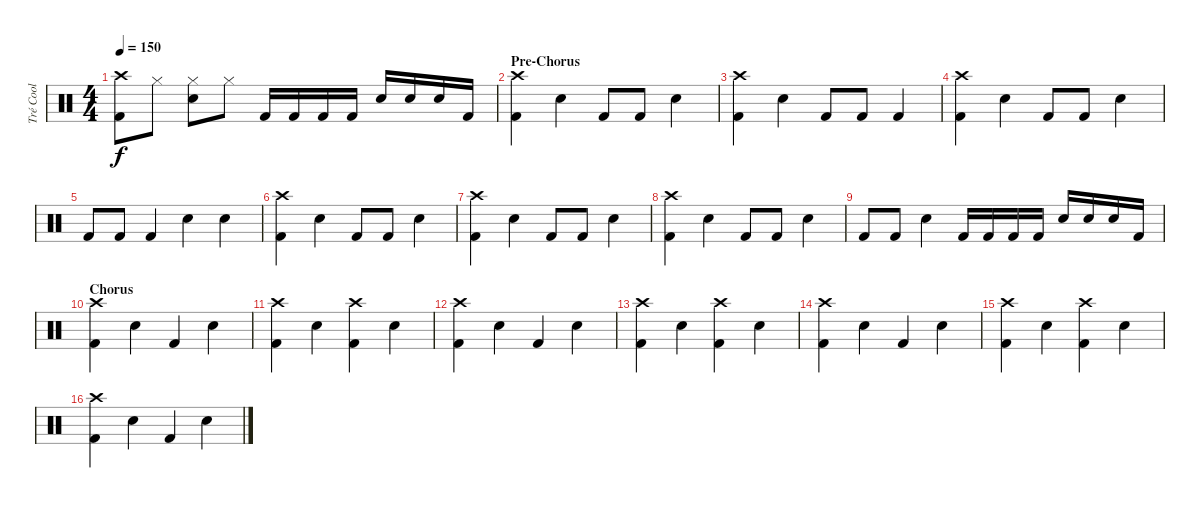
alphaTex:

\track ("Tré Cool" "Tré Cool") {instrument percussion}
\staff {score}
\articulation defaults
\ts (4 4)
\tempo 150
\clef neutral
\ks c
("Kick (hit) 2" "Crash high (hit)").8{dy f} "Hi-Hat (closed)".8 ("Snare (hit) 2" "Hi-Hat (closed)").8 "Hi-Hat (closed)".8 "Kick (hit) 2".16 "Kick (hit) 2".16 "Kick (hit) 2".16 "Kick (hit) 2".16 "Snare (hit) 2".16 "Snare (hit) 2".16 "Snare (hit) 2".16 "Kick (hit) 2".16 |
\section ("" "Pre-Chorus")
("Kick (hit) 2" "Crash high (hit)").4 "Snare (hit) 2".4 "Kick (hit) 2".8 "Kick (hit) 2".8 "Snare (hit) 2".4 |
("Kick (hit) 2" "Crash high (hit)").4 "Snare (hit) 2".4 "Kick (hit) 2".8 "Kick (hit) 2".8 "Kick (hit) 2".4 |
("Kick (hit) 2" "Crash high (hit)").4 "Snare (hit) 2".4 "Kick (hit) 2".8 "Kick (hit) 2".8 "Snare (hit) 2".4 |
"Kick (hit) 2".8 "Kick (hit) 2".8 "Kick (hit) 2".4 "Snare (hit) 2".4 "Snare (hit) 2".4 |
("Kick (hit) 2" "Crash high (hit)").4 "Snare (hit) 2".4 "Kick (hit) 2".8 "Kick (hit) 2".8 "Snare (hit) 2".4 |
("Kick (hit) 2" "Crash high (hit)").4 "Snare (hit) 2".4 "Kick (hit) 2".8 "Kick (hit) 2".8 "Snare (hit) 2".4 |
("Kick (hit) 2" "Crash high (hit)").4 "Snare (hit) 2".4 "Kick (hit) 2".8 "Kick (hit) 2".8 "Snare (hit) 2".4 |
"Kick (hit) 2".8 "Kick (hit) 2".8 "Snare (hit) 2".4 "Kick (hit) 2".16 "Kick (hit) 2".16 "Kick (hit) 2".16 "Kick (hit) 2".16 "Snare (hit) 2".16 "Snare (hit) 2".16 "Snare (hit) 2".16 "Kick (hit) 2".16 |
\section ("" "Chorus")
("Kick (hit) 2" "Crash high (hit)").4 "Snare (hit) 2".4 "Kick (hit) 2".4 "Snare (hit) 2".4 |
("Kick (hit) 2" "Crash high (hit)").4 "Snare (hit) 2".4 ("Kick (hit) 2" "Crash high (hit)").4 "Snare (hit) 2".4 |
("Kick (hit) 2" "Crash high (hit)").4 "Snare (hit) 2".4 "Kick (hit) 2".4 "Snare (hit) 2".4 |
("Kick (hit) 2" "Crash high (hit)").4 "Snare (hit) 2".4 ("Kick (hit) 2" "Crash high (hit)").4 "Snare (hit) 2".4 |
("Kick (hit) 2" "Crash high (hit)").4 "Snare (hit) 2".4 "Kick (hit) 2".4 "Snare (hit) 2".4 |
("Kick (hit) 2" "Crash high (hit)").4 "Snare (hit) 2".4 ("Kick (hit) 2" "Crash high (hit)").4 "Snare (hit) 2".4 |
("Kick (hit) 2" "Crash high (hit)").4 "Snare (hit) 2".4 "Kick (hit) 2".4 "Snare (hit) 2".4
